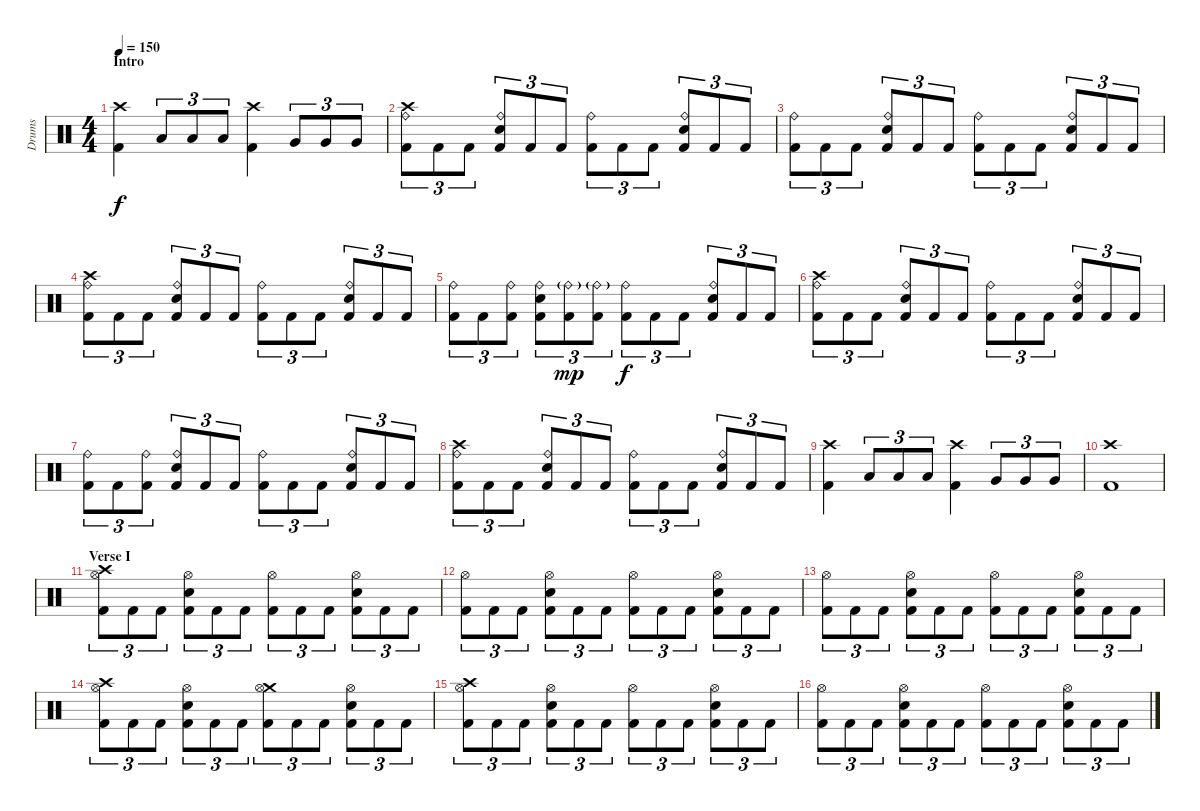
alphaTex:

\track ("Drums" "Drums") {instrument percussion}
\staff {score}
\articulation defaults
\ts (4 4)
\section ("" "Intro")
\tempo 150
\clef neutral
\ks c
("Kick (hit) 2" "Crash high (hit)").4{dy f} "Low Tom (hit)".8{tu (3 2)} "Low Tom (hit)".8{tu (3 2)} "Low Tom (hit)".8{tu (3 2)} ("Kick (hit) 2" "Crash high (hit)").4 "Very Low Tom (hit)".8{tu (3 2)} "Very Low Tom (hit)".8{tu (3 2)} "Very Low Tom (hit)".8{tu (3 2)} |
("Kick (hit) 2" "Crash high (hit)" "Ride (bell)").8{tu (3 2)} "Kick (hit) 2".8{tu (3 2)} "Kick (hit) 2".8{tu (3 2)} ("Kick (hit) 2" "Electric Snare (hit)" "Ride (bell)").8{tu (3 2)} "Kick (hit) 2".8{tu (3 2)} "Kick (hit) 2".8{tu (3 2)} ("Kick (hit) 2" "Ride (bell)").8{tu (3 2)} "Kick (hit) 2".8{tu (3 2)} "Kick (hit) 2".8{tu (3 2)} ("Kick (hit) 2" "Electric Snare (hit)" "Ride (bell)").8{tu (3 2)} "Kick (hit) 2".8{tu (3 2)} "Kick (hit) 2".8{tu (3 2)} |
("Kick (hit) 2" "Ride (bell)").8{tu (3 2)} "Kick (hit) 2".8{tu (3 2)} "Kick (hit) 2".8{tu (3 2)} ("Kick (hit) 2" "Electric Snare (hit)" "Ride (bell)").8{tu (3 2)} "Kick (hit) 2".8{tu (3 2)} "Kick (hit) 2".8{tu (3 2)} ("Kick (hit) 2" "Ride (bell)").8{tu (3 2)} "Kick (hit) 2".8{tu (3 2)} "Kick (hit) 2".8{tu (3 2)} ("Kick (hit) 2" "Electric Snare (hit)" "Ride (bell)").8{tu (3 2)} "Kick (hit) 2".8{tu (3 2)} "Kick (hit) 2".8{tu (3 2)} |
("Kick (hit) 2" "Crash high (hit)" "Ride (bell)").8{tu (3 2)} "Kick (hit) 2".8{tu (3 2)} "Kick (hit) 2".8{tu (3 2)} ("Kick (hit) 2" "Electric Snare (hit)" "Ride (bell)").8{tu (3 2)} "Kick (hit) 2".8{tu (3 2)} "Kick (hit) 2".8{tu (3 2)} ("Kick (hit) 2" "Ride (bell)").8{tu (3 2)} "Kick (hit) 2".8{tu (3 2)} "Kick (hit) 2".8{tu (3 2)} ("Kick (hit) 2" "Electric Snare (hit)" "Ride (bell)").8{tu (3 2)} "Kick (hit) 2".8{tu (3 2)} "Kick (hit) 2".8{tu (3 2)} |
("Kick (hit) 2" "Ride (bell)").8{tu (3 2)} "Kick (hit) 2".8{tu (3 2)} ("Kick (hit) 2" "Ride (bell)").8{tu (3 2)} ("Kick (hit) 2" "Electric Snare (hit)" "Ride (bell)").8{tu (3 2)} ("Kick (hit) 2" "Ride (bell)"{g}).8{tu (3 2) dy mp} ("Kick (hit) 2" "Ride (bell)"{g}).8{tu (3 2)} ("Kick (hit) 2" "Ride (bell)").8{tu (3 2) dy f} "Kick (hit) 2".8{tu (3 2)} "Kick (hit) 2".8{tu (3 2)} ("Kick (hit) 2" "Electric Snare (hit)" "Ride (bell)").8{tu (3 2)} "Kick (hit) 2".8{tu (3 2)} "Kick (hit) 2".8{tu (3 2)} |
("Kick (hit) 2" "Crash high (hit)" "Ride (bell)").8{tu (3 2)} "Kick (hit) 2".8{tu (3 2)} "Kick (hit) 2".8{tu (3 2)} ("Kick (hit) 2" "Electric Snare (hit)" "Ride (bell)").8{tu (3 2)} "Kick (hit) 2".8{tu (3 2)} "Kick (hit) 2".8{tu (3 2)} ("Kick (hit) 2" "Ride (bell)").8{tu (3 2)} "Kick (hit) 2".8{tu (3 2)} "Kick (hit) 2".8{tu (3 2)} ("Kick (hit) 2" "Electric Snare (hit)" "Ride (bell)").8{tu (3 2)} "Kick (hit) 2".8{tu (3 2)} "Kick (hit) 2".8{tu (3 2)} |
("Kick (hit) 2" "Ride (bell)").8{tu (3 2)} "Kick (hit) 2".8{tu (3 2)} ("Kick (hit) 2" "Ride (bell)").8{tu (3 2)} ("Kick (hit) 2" "Electric Snare (hit)" "Ride (bell)").8{tu (3 2)} "Kick (hit) 2".8{tu (3 2)} "Kick (hit) 2".8{tu (3 2)} ("Kick (hit) 2" "Ride (bell)").8{tu (3 2)} "Kick (hit) 2".8{tu (3 2)} "Kick (hit) 2".8{tu (3 2)} ("Kick (hit) 2" "Electric Snare (hit)" "Ride (bell)").8{tu (3 2)} "Kick (hit) 2".8{tu (3 2)} "Kick (hit) 2".8{tu (3 2)} |
("Kick (hit) 2" "Crash high (hit)" "Ride (bell)").8{tu (3 2)} "Kick (hit) 2".8{tu (3 2)} "Kick (hit) 2".8{tu (3 2)} ("Kick (hit) 2" "Electric Snare (hit)" "Ride (bell)").8{tu (3 2)} "Kick (hit) 2".8{tu (3 2)} "Kick (hit) 2".8{tu (3 2)} ("Kick (hit) 2" "Ride (bell)").8{tu (3 2)} "Kick (hit) 2".8{tu (3 2)} "Kick (hit) 2".8{tu (3 2)} ("Kick (hit) 2" "Electric Snare (hit)" "Ride (bell)").8{tu (3 2)} "Kick (hit) 2".8{tu (3 2)} "Kick (hit) 2".8{tu (3 2)} |
("Kick (hit) 2" "Crash high (hit)").4 "Low Tom (hit)".8{tu (3 2)} "Low Tom (hit)".8{tu (3 2)} "Low Tom (hit)".8{tu (3 2)} ("Kick (hit) 2" "Crash high (hit)").4 "Very Low Tom (hit)".8{tu (3 2)} "Very Low Tom (hit)".8{tu (3 2)} "Very Low Tom (hit)".8{tu (3 2)} |
("Kick (hit) 2" "Crash high (hit)").1 |
\section ("" "Verse I")
("Kick (hit) 2" "Crash high (hit)" "Hi-Hat (open)").8{tu (3 2)} "Kick (hit) 2".8{tu (3 2)} "Kick (hit) 2".8{tu (3 2)} ("Kick (hit) 2" "Electric Snare (hit)" "Hi-Hat (open)").8{tu (3 2)} "Kick (hit) 2".8{tu (3 2)} "Kick (hit) 2".8{tu (3 2)} ("Kick (hit) 2" "Hi-Hat (open)").8{tu (3 2)} "Kick (hit) 2".8{tu (3 2)} "Kick (hit) 2".8{tu (3 2)} ("Kick (hit) 2" "Electric Snare (hit)" "Hi-Hat (open)").8{tu (3 2)} "Kick (hit) 2".8{tu (3 2)} "Kick (hit) 2".8{tu (3 2)} |
("Kick (hit) 2" "Hi-Hat (open)").8{tu (3 2)} "Kick (hit) 2".8{tu (3 2)} "Kick (hit) 2".8{tu (3 2)} ("Kick (hit) 2" "Electric Snare (hit)" "Hi-Hat (open)").8{tu (3 2)} "Kick (hit) 2".8{tu (3 2)} "Kick (hit) 2".8{tu (3 2)} ("Kick (hit) 2" "Hi-Hat (open)").8{tu (3 2)} "Kick (hit) 2".8{tu (3 2)} "Kick (hit) 2".8{tu (3 2)} ("Kick (hit) 2" "Electric Snare (hit)" "Hi-Hat (open)").8{tu (3 2)} "Kick (hit) 2".8{tu (3 2)} "Kick (hit) 2".8{tu (3 2)} |
("Kick (hit) 2" "Hi-Hat (open)").8{tu (3 2)} "Kick (hit) 2".8{tu (3 2)} "Kick (hit) 2".8{tu (3 2)} ("Kick (hit) 2" "Electric Snare (hit)" "Hi-Hat (open)").8{tu (3 2)} "Kick (hit) 2".8{tu (3 2)} "Kick (hit) 2".8{tu (3 2)} ("Kick (hit) 2" "Hi-Hat (open)").8{tu (3 2)} "Kick (hit) 2".8{tu (3 2)} "Kick (hit) 2".8{tu (3 2)} ("Kick (hit) 2" "Electric Snare (hit)" "Hi-Hat (open)").8{tu (3 2)} "Kick (hit) 2".8{tu (3 2)} "Kick (hit) 2".8{tu (3 2)} |
("Kick (hit) 2" "Crash high (hit)" "Hi-Hat (open)").8{tu (3 2)} "Kick (hit) 2".8{tu (3 2)} "Kick (hit) 2".8{tu (3 2)} ("Kick (hit) 2" "Electric Snare (hit)" "Hi-Hat (open)").8{tu (3 2)} "Kick (hit) 2".8{tu (3 2)} "Kick (hit) 2".8{tu (3 2)} ("Kick (hit) 2" "Crash medium (hit)" "Hi-Hat (open)").8{tu (3 2)} "Kick (hit) 2".8{tu (3 2)} "Kick (hit) 2".8{tu (3 2)} ("Kick (hit) 2" "Electric Snare (hit)" "Hi-Hat (open)").8{tu (3 2)} "Kick (hit) 2".8{tu (3 2)} "Kick (hit) 2".8{tu (3 2)} |
("Kick (hit) 2" "Crash high (hit)" "Hi-Hat (open)").8{tu (3 2)} "Kick (hit) 2".8{tu (3 2)} "Kick (hit) 2".8{tu (3 2)} ("Kick (hit) 2" "Electric Snare (hit)" "Hi-Hat (open)").8{tu (3 2)} "Kick (hit) 2".8{tu (3 2)} "Kick (hit) 2".8{tu (3 2)} ("Kick (hit) 2" "Hi-Hat (open)").8{tu (3 2)} "Kick (hit) 2".8{tu (3 2)} "Kick (hit) 2".8{tu (3 2)} ("Kick (hit) 2" "Electric Snare (hit)" "Hi-Hat (open)").8{tu (3 2)} "Kick (hit) 2".8{tu (3 2)} "Kick (hit) 2".8{tu (3 2)} |
("Kick (hit) 2" "Hi-Hat (open)").8{tu (3 2)} "Kick (hit) 2".8{tu (3 2)} "Kick (hit) 2".8{tu (3 2)} ("Kick (hit) 2" "Electric Snare (hit)" "Hi-Hat (open)").8{tu (3 2)} "Kick (hit) 2".8{tu (3 2)} "Kick (hit) 2".8{tu (3 2)} ("Kick (hit) 2" "Hi-Hat (open)").8{tu (3 2)} "Kick (hit) 2".8{tu (3 2)} "Kick (hit) 2".8{tu (3 2)} ("Kick (hit) 2" "Electric Snare (hit)" "Hi-Hat (open)").8{tu (3 2)} "Kick (hit) 2".8{tu (3 2)} "Kick (hit) 2".8{tu (3 2)}
